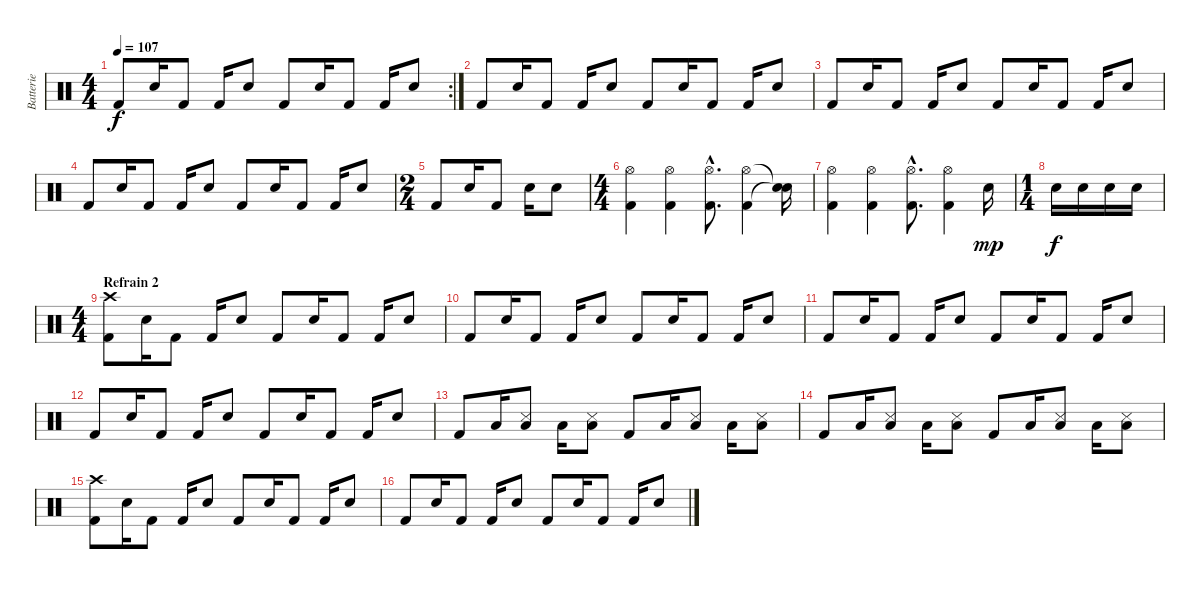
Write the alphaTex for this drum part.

\track ("Batterie" "Batterie") {instrument percussion}
\staff {score}
\articulation defaults
\rc 2
\ts (4 4)
\tempo 107
\clef neutral
\ks c "Kick (hit) 2".8{dy f} "Electric Snare (hit)".16 "Kick (hit) 2".8 "Kick (hit) 2".16 "Electric Snare (hit)".8 "Kick (hit) 2".8 "Electric Snare (hit)".16 "Kick (hit) 2".8 "Kick (hit) 2".16 "Electric Snare (hit)".8
|
"Kick (hit) 2".8 "Electric Snare (hit)".16 "Kick (hit) 2".8 "Kick (hit) 2".16 "Electric Snare (hit)".8 "Kick (hit) 2".8 "Electric Snare (hit)".16 "Kick (hit) 2".8 "Kick (hit) 2".16 "Electric Snare (hit)".8 |
"Kick (hit) 2".8 "Electric Snare (hit)".16 "Kick (hit) 2".8 "Kick (hit) 2".16 "Electric Snare (hit)".8 "Kick (hit) 2".8 "Electric Snare (hit)".16 "Kick (hit) 2".8 "Kick (hit) 2".16 "Electric Snare (hit)".8 |
"Kick (hit) 2".8 "Electric Snare (hit)".16 "Kick (hit) 2".8 "Kick (hit) 2".16 "Electric Snare (hit)".8 "Kick (hit) 2".8 "Electric Snare (hit)".16 "Kick (hit) 2".8 "Kick (hit) 2".16 "Electric Snare (hit)".8 |
\ts (2 4)
"Kick (hit) 2".8 "Electric Snare (hit)".16 "Kick (hit) 2".8 "Electric Snare (hit)".16 "Electric Snare (hit)".8 |
\ts (4 4)
("Hi-Hat (open)" "Kick (hit) 2").4 ("Hi-Hat (open)" "Kick (hit) 2").4 ("Hi-Hat (open)"{hac} "Kick (hit) 2"{hac}).8{d} ("Hi-Hat (open)" "Kick (hit) 2").4 ("Snare (hit)"{t} "Snare (hit)"{t}).16 |
("Hi-Hat (open)" "Kick (hit) 2").4 ("Hi-Hat (open)" "Kick (hit) 2").4 ("Hi-Hat (open)"{hac} "Kick (hit) 2"{hac}).8{d} ("Hi-Hat (open)" "Kick (hit) 2").4 "Electric Snare (hit)".16{dy mp} |
\ts (1 4)
"Electric Snare (hit)".16{dy f} "Electric Snare (hit)".16 "Electric Snare (hit)".16 "Electric Snare (hit)".16 |
\ts (4 4)
\section ("" "Refrain 2")
("Crash high (hit)" "Kick (hit) 2").8 "Electric Snare (hit)".16 "Kick (hit) 2".8 "Kick (hit) 2".16 "Electric Snare (hit)".8 "Kick (hit) 2".8 "Electric Snare (hit)".16 "Kick (hit) 2".8 "Kick (hit) 2".16 "Electric Snare (hit)".8 |
"Kick (hit) 2".8 "Electric Snare (hit)".16 "Kick (hit) 2".8 "Kick (hit) 2".16 "Electric Snare (hit)".8 "Kick (hit) 2".8 "Electric Snare (hit)".16 "Kick (hit) 2".8 "Kick (hit) 2".16 "Electric Snare (hit)".8 |
"Kick (hit) 2".8 "Electric Snare (hit)".16 "Kick (hit) 2".8 "Kick (hit) 2".16 "Electric Snare (hit)".8 "Kick (hit) 2".8 "Electric Snare (hit)".16 "Kick (hit) 2".8 "Kick (hit) 2".16 "Electric Snare (hit)".8 |
"Kick (hit) 2".8 "Electric Snare (hit)".16 "Kick (hit) 2".8 "Kick (hit) 2".16 "Electric Snare (hit)".8 "Kick (hit) 2".8 "Electric Snare (hit)".16 "Kick (hit) 2".8 "Kick (hit) 2".16 "Electric Snare (hit)".8 |
"Kick (hit) 2".8 "Low Tom (hit)".16 ("Snare (side stick) 3" "Low Tom (hit)").8 "Low Tom (hit)".16 ("Snare (side stick) 3" "Low Tom (hit)").8 "Kick (hit) 2".8 "Low Tom (hit)".16 ("Snare (side stick) 3" "Low Tom (hit)").8 "Low Tom (hit)".16 ("Snare (side stick) 3" "Low Tom (hit)").8 |
"Kick (hit) 2".8 "Low Tom (hit)".16 ("Snare (side stick) 3" "Low Tom (hit)").8 "Low Tom (hit)".16 ("Snare (side stick) 3" "Low Tom (hit)").8 "Kick (hit) 2".8 "Low Tom (hit)".16 ("Snare (side stick) 3" "Low Tom (hit)").8 "Low Tom (hit)".16 ("Snare (side stick) 3" "Low Tom (hit)").8 |
("Crash high (hit)" "Kick (hit) 2").8 "Electric Snare (hit)".16 "Kick (hit) 2".8 "Kick (hit) 2".16 "Electric Snare (hit)".8 "Kick (hit) 2".8 "Electric Snare (hit)".16 "Kick (hit) 2".8 "Kick (hit) 2".16 "Electric Snare (hit)".8 |
"Kick (hit) 2".8 "Electric Snare (hit)".16 "Kick (hit) 2".8 "Kick (hit) 2".16 "Electric Snare (hit)".8 "Kick (hit) 2".8 "Electric Snare (hit)".16 "Kick (hit) 2".8 "Kick (hit) 2".16 "Electric Snare (hit)".8
